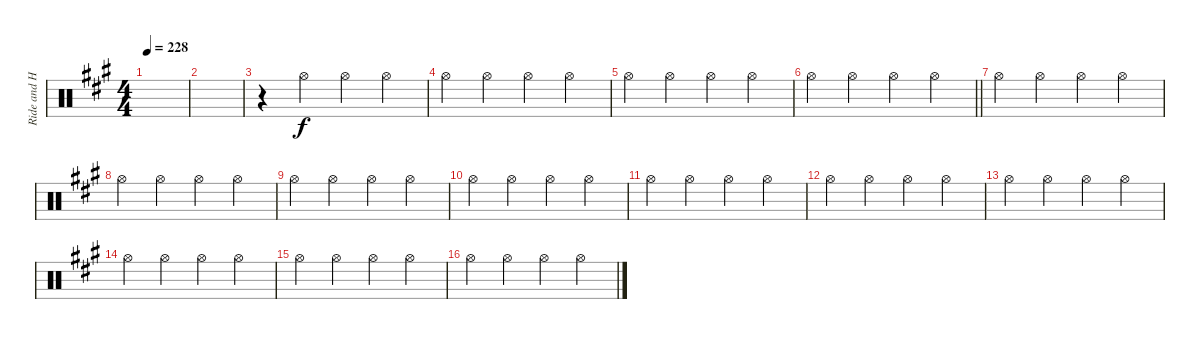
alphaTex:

\track ("Ride and Hi Hat" "Ride and H") {instrument percussion}
\staff {score}
\articulation defaults
\ts (4 4)
\tempo 228
\clef neutral
\ks a
|
|
r.4 "Hi-Hat (open)".4 "Hi-Hat (open)".4 "Hi-Hat (open)".4 |
"Hi-Hat (open)".4 "Hi-Hat (open)".4 "Hi-Hat (open)".4 "Hi-Hat (open)".4 |
"Hi-Hat (open)".4 "Hi-Hat (open)".4 "Hi-Hat (open)".4 "Hi-Hat (open)".4 |
\barLineRight lightlight "Hi-Hat (open)".4 "Hi-Hat (open)".4 "Hi-Hat (open)".4 "Hi-Hat (open)".4
|
"Hi-Hat (open)".4 "Hi-Hat (open)".4 "Hi-Hat (open)".4 "Hi-Hat (open)".4 |
"Hi-Hat (open)".4 "Hi-Hat (open)".4 "Hi-Hat (open)".4 "Hi-Hat (open)".4 |
"Hi-Hat (open)".4 "Hi-Hat (open)".4 "Hi-Hat (open)".4 "Hi-Hat (open)".4 |
"Hi-Hat (open)".4 "Hi-Hat (open)".4 "Hi-Hat (open)".4 "Hi-Hat (open)".4 |
"Hi-Hat (open)".4 "Hi-Hat (open)".4 "Hi-Hat (open)".4 "Hi-Hat (open)".4 |
"Hi-Hat (open)".4 "Hi-Hat (open)".4 "Hi-Hat (open)".4 "Hi-Hat (open)".4 |
"Hi-Hat (open)".4 "Hi-Hat (open)".4 "Hi-Hat (open)".4 "Hi-Hat (open)".4 |
"Hi-Hat (open)".4 "Hi-Hat (open)".4 "Hi-Hat (open)".4 "Hi-Hat (open)".4 |
"Hi-Hat (open)".4 "Hi-Hat (open)".4 "Hi-Hat (open)".4 "Hi-Hat (open)".4 |
"Hi-Hat (open)".4 "Hi-Hat (open)".4 "Hi-Hat (open)".4 "Hi-Hat (open)".4
